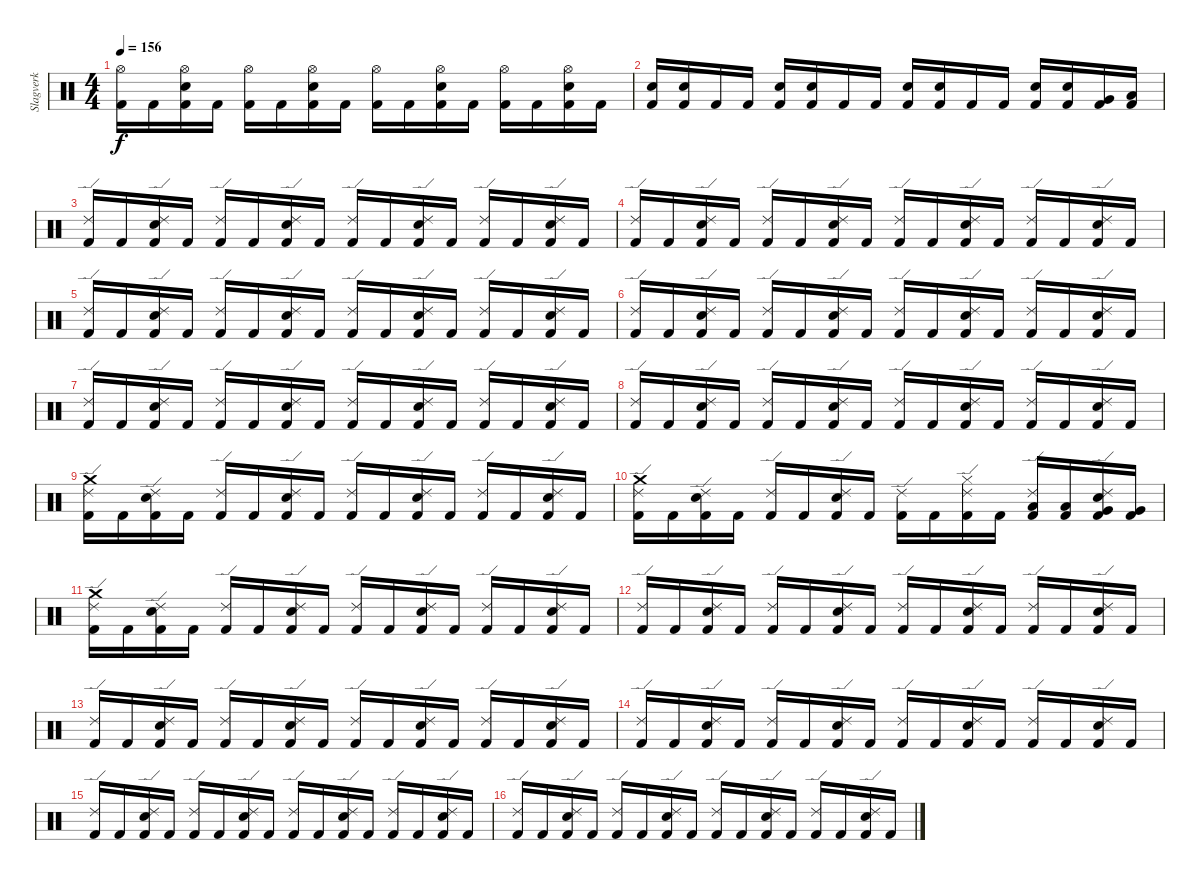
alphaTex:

\track ("Slagverk" "Slagverk") {instrument percussion}
\staff {score}
\articulation defaults
\ts (4 4)
\tempo 156
\clef neutral
\ks c
("Hi-Hat (open)" "Kick (hit) 2").16{dy f} "Kick (hit) 2".16 ("Snare (hit) 2" "Hi-Hat (open)" "Kick (hit) 2").16 "Kick (hit) 2".16 ("Hi-Hat (open)" "Kick (hit) 2").16 "Kick (hit) 2".16 ("Snare (hit) 2" "Hi-Hat (open)" "Kick (hit) 2").16 "Kick (hit) 2".16 ("Hi-Hat (open)" "Kick (hit) 2").16 "Kick (hit) 2".16 ("Snare (hit) 2" "Hi-Hat (open)" "Kick (hit) 2").16 "Kick (hit) 2".16 ("Hi-Hat (open)" "Kick (hit) 2").16 "Kick (hit) 2".16 ("Snare (hit) 2" "Hi-Hat (open)" "Kick (hit) 2").16 "Kick (hit) 2".16 |
("Electric Snare (hit)" "Kick (hit) 2").16 ("Electric Snare (hit)" "Kick (hit) 2").16 "Kick (hit) 2".16 "Kick (hit) 2".16 ("Electric Snare (hit)" "Kick (hit) 2").16 ("Electric Snare (hit)" "Kick (hit) 2").16 "Kick (hit) 2".16 "Kick (hit) 2".16 ("Electric Snare (hit)" "Kick (hit) 2").16 ("Electric Snare (hit)" "Kick (hit) 2").16 "Kick (hit) 2".16 "Kick (hit) 2".16 ("Electric Snare (hit)" "Kick (hit) 2").16 ("Electric Snare (hit)" "Kick (hit) 2").16 ("Very Low Tom (hit)" "Kick (hit) 2").16 ("Low Floor Tom (hit)" "Kick (hit) 2").16 |
("Ride (edge) 2" "Kick (hit) 2").16 "Kick (hit) 2".16 ("Snare (hit) 2" "Ride (edge) 2" "Kick (hit) 2").16 "Kick (hit) 2".16 ("Ride (edge) 2" "Kick (hit) 2").16 "Kick (hit) 2".16 ("Snare (hit) 2" "Ride (edge) 2" "Kick (hit) 2").16 "Kick (hit) 2".16 ("Ride (edge) 2" "Kick (hit) 2").16 "Kick (hit) 2".16 ("Snare (hit) 2" "Ride (edge) 2" "Kick (hit) 2").16 "Kick (hit) 2".16 ("Ride (edge) 2" "Kick (hit) 2").16 "Kick (hit) 2".16 ("Snare (hit) 2" "Ride (edge) 2" "Kick (hit) 2").16 "Kick (hit) 2".16 |
("Ride (edge) 2" "Kick (hit) 2").16 "Kick (hit) 2".16 ("Snare (hit) 2" "Ride (edge) 2" "Kick (hit) 2").16 "Kick (hit) 2".16 ("Ride (edge) 2" "Kick (hit) 2").16 "Kick (hit) 2".16 ("Snare (hit) 2" "Ride (edge) 2" "Kick (hit) 2").16 "Kick (hit) 2".16 ("Ride (edge) 2" "Kick (hit) 2").16 "Kick (hit) 2".16 ("Snare (hit) 2" "Ride (edge) 2" "Kick (hit) 2").16 "Kick (hit) 2".16 ("Ride (edge) 2" "Kick (hit) 2").16 "Kick (hit) 2".16 ("Snare (hit) 2" "Ride (edge) 2" "Kick (hit) 2").16 "Kick (hit) 2".16 |
("Ride (edge) 2" "Kick (hit) 2").16 "Kick (hit) 2".16 ("Snare (hit) 2" "Ride (edge) 2" "Kick (hit) 2").16 "Kick (hit) 2".16 ("Ride (edge) 2" "Kick (hit) 2").16 "Kick (hit) 2".16 ("Snare (hit) 2" "Ride (edge) 2" "Kick (hit) 2").16 "Kick (hit) 2".16 ("Ride (edge) 2" "Kick (hit) 2").16 "Kick (hit) 2".16 ("Snare (hit) 2" "Ride (edge) 2" "Kick (hit) 2").16 "Kick (hit) 2".16 ("Ride (edge) 2" "Kick (hit) 2").16 "Kick (hit) 2".16 ("Snare (hit) 2" "Ride (edge) 2" "Kick (hit) 2").16 "Kick (hit) 2".16 |
("Ride (edge) 2" "Kick (hit) 2").16 "Kick (hit) 2".16 ("Snare (hit) 2" "Ride (edge) 2" "Kick (hit) 2").16 "Kick (hit) 2".16 ("Ride (edge) 2" "Kick (hit) 2").16 "Kick (hit) 2".16 ("Snare (hit) 2" "Ride (edge) 2" "Kick (hit) 2").16 "Kick (hit) 2".16 ("Ride (edge) 2" "Kick (hit) 2").16 "Kick (hit) 2".16 ("Snare (hit) 2" "Ride (edge) 2" "Kick (hit) 2").16 "Kick (hit) 2".16 ("Ride (edge) 2" "Kick (hit) 2").16 "Kick (hit) 2".16 ("Snare (hit) 2" "Ride (edge) 2" "Kick (hit) 2").16 "Kick (hit) 2".16 |
("Ride (edge) 2" "Kick (hit) 2").16 "Kick (hit) 2".16 ("Snare (hit) 2" "Ride (edge) 2" "Kick (hit) 2").16 "Kick (hit) 2".16 ("Ride (edge) 2" "Kick (hit) 2").16 "Kick (hit) 2".16 ("Snare (hit) 2" "Ride (edge) 2" "Kick (hit) 2").16 "Kick (hit) 2".16 ("Ride (edge) 2" "Kick (hit) 2").16 "Kick (hit) 2".16 ("Snare (hit) 2" "Ride (edge) 2" "Kick (hit) 2").16 "Kick (hit) 2".16 ("Ride (edge) 2" "Kick (hit) 2").16 "Kick (hit) 2".16 ("Snare (hit) 2" "Ride (edge) 2" "Kick (hit) 2").16 "Kick (hit) 2".16 |
("Ride (edge) 2" "Kick (hit) 2").16 "Kick (hit) 2".16 ("Snare (hit) 2" "Ride (edge) 2" "Kick (hit) 2").16 "Kick (hit) 2".16 ("Ride (edge) 2" "Kick (hit) 2").16 "Kick (hit) 2".16 ("Snare (hit) 2" "Ride (edge) 2" "Kick (hit) 2").16 "Kick (hit) 2".16 ("Ride (edge) 2" "Kick (hit) 2").16 "Kick (hit) 2".16 ("Snare (hit) 2" "Ride (edge) 2" "Kick (hit) 2").16 "Kick (hit) 2".16 ("Ride (edge) 2" "Kick (hit) 2").16 "Kick (hit) 2".16 ("Snare (hit) 2" "Ride (edge) 2" "Kick (hit) 2").16 "Kick (hit) 2".16 |
("Crash medium (hit)" "Ride (edge) 2" "Kick (hit) 2").16 "Kick (hit) 2".16 ("Snare (hit) 2" "Ride (edge) 2" "Kick (hit) 2").16 "Kick (hit) 2".16 ("Ride (edge) 2" "Kick (hit) 2").16 "Kick (hit) 2".16 ("Snare (hit) 2" "Ride (edge) 2" "Kick (hit) 2").16 "Kick (hit) 2".16 ("Ride (edge) 2" "Kick (hit) 2").16 "Kick (hit) 2".16 ("Snare (hit) 2" "Ride (edge) 2" "Kick (hit) 2").16 "Kick (hit) 2".16 ("Ride (edge) 2" "Kick (hit) 2").16 "Kick (hit) 2".16 ("Snare (hit) 2" "Ride (edge) 2" "Kick (hit) 2").16 "Kick (hit) 2".16 |
("Crash medium (hit)" "Ride (edge) 2" "Kick (hit) 2").16 "Kick (hit) 2".16 ("Snare (hit) 2" "Ride (edge) 2" "Kick (hit) 2").16 "Kick (hit) 2".16 ("Ride (edge) 2" "Kick (hit) 2").16 "Kick (hit) 2".16 ("Snare (hit) 2" "Ride (edge) 2" "Kick (hit) 2").16 "Kick (hit) 2".16 ("Ride (edge) 2" "Kick (hit) 2").16 "Kick (hit) 2".16 ("Kick (hit) 2" "Hi-Hat (closed)" "Ride (edge) 2").16 "Kick (hit) 2".16 ("Low Tom (hit)" "Ride (edge) 2" "Kick (hit) 2").16 ("Low Tom (hit)" "Kick (hit) 2").16 ("Very Low Tom (hit)" "Snare (hit) 2" "Ride (edge) 2" "Kick (hit) 2").16 ("Very Low Tom (hit)" "Kick (hit) 2").16 |
("Crash medium (hit)" "Ride (edge) 2" "Kick (hit) 2").16 "Kick (hit) 2".16 ("Snare (hit) 2" "Ride (edge) 2" "Kick (hit) 2").16 "Kick (hit) 2".16 ("Ride (edge) 2" "Kick (hit) 2").16 "Kick (hit) 2".16 ("Snare (hit) 2" "Ride (edge) 2" "Kick (hit) 2").16 "Kick (hit) 2".16 ("Ride (edge) 2" "Kick (hit) 2").16 "Kick (hit) 2".16 ("Snare (hit) 2" "Ride (edge) 2" "Kick (hit) 2").16 "Kick (hit) 2".16 ("Ride (edge) 2" "Kick (hit) 2").16 "Kick (hit) 2".16 ("Snare (hit) 2" "Ride (edge) 2" "Kick (hit) 2").16 "Kick (hit) 2".16 |
("Ride (edge) 2" "Kick (hit) 2").16 "Kick (hit) 2".16 ("Snare (hit) 2" "Ride (edge) 2" "Kick (hit) 2").16 "Kick (hit) 2".16 ("Ride (edge) 2" "Kick (hit) 2").16 "Kick (hit) 2".16 ("Snare (hit) 2" "Ride (edge) 2" "Kick (hit) 2").16 "Kick (hit) 2".16 ("Ride (edge) 2" "Kick (hit) 2").16 "Kick (hit) 2".16 ("Snare (hit) 2" "Ride (edge) 2" "Kick (hit) 2").16 "Kick (hit) 2".16 ("Ride (edge) 2" "Kick (hit) 2").16 "Kick (hit) 2".16 ("Snare (hit) 2" "Ride (edge) 2" "Kick (hit) 2").16 "Kick (hit) 2".16 |
("Ride (edge) 2" "Kick (hit) 2").16 "Kick (hit) 2".16 ("Snare (hit) 2" "Ride (edge) 2" "Kick (hit) 2").16 "Kick (hit) 2".16 ("Ride (edge) 2" "Kick (hit) 2").16 "Kick (hit) 2".16 ("Snare (hit) 2" "Ride (edge) 2" "Kick (hit) 2").16 "Kick (hit) 2".16 ("Ride (edge) 2" "Kick (hit) 2").16 "Kick (hit) 2".16 ("Snare (hit) 2" "Ride (edge) 2" "Kick (hit) 2").16 "Kick (hit) 2".16 ("Ride (edge) 2" "Kick (hit) 2").16 "Kick (hit) 2".16 ("Snare (hit) 2" "Ride (edge) 2" "Kick (hit) 2").16 "Kick (hit) 2".16 |
("Ride (edge) 2" "Kick (hit) 2").16 "Kick (hit) 2".16 ("Snare (hit) 2" "Ride (edge) 2" "Kick (hit) 2").16 "Kick (hit) 2".16 ("Ride (edge) 2" "Kick (hit) 2").16 "Kick (hit) 2".16 ("Snare (hit) 2" "Ride (edge) 2" "Kick (hit) 2").16 "Kick (hit) 2".16 ("Ride (edge) 2" "Kick (hit) 2").16 "Kick (hit) 2".16 ("Snare (hit) 2" "Ride (edge) 2" "Kick (hit) 2").16 "Kick (hit) 2".16 ("Ride (edge) 2" "Kick (hit) 2").16 "Kick (hit) 2".16 ("Snare (hit) 2" "Ride (edge) 2" "Kick (hit) 2").16 "Kick (hit) 2".16 |
("Ride (edge) 2" "Kick (hit) 2").16 "Kick (hit) 2".16 ("Snare (hit) 2" "Ride (edge) 2" "Kick (hit) 2").16 "Kick (hit) 2".16 ("Ride (edge) 2" "Kick (hit) 2").16 "Kick (hit) 2".16 ("Snare (hit) 2" "Ride (edge) 2" "Kick (hit) 2").16 "Kick (hit) 2".16 ("Ride (edge) 2" "Kick (hit) 2").16 "Kick (hit) 2".16 ("Snare (hit) 2" "Ride (edge) 2" "Kick (hit) 2").16 "Kick (hit) 2".16 ("Ride (edge) 2" "Kick (hit) 2").16 "Kick (hit) 2".16 ("Snare (hit) 2" "Ride (edge) 2" "Kick (hit) 2").16 "Kick (hit) 2".16 |
("Ride (edge) 2" "Kick (hit) 2").16 "Kick (hit) 2".16 ("Snare (hit) 2" "Ride (edge) 2" "Kick (hit) 2").16 "Kick (hit) 2".16 ("Ride (edge) 2" "Kick (hit) 2").16 "Kick (hit) 2".16 ("Snare (hit) 2" "Ride (edge) 2" "Kick (hit) 2").16 "Kick (hit) 2".16 ("Ride (edge) 2" "Kick (hit) 2").16 "Kick (hit) 2".16 ("Snare (hit) 2" "Ride (edge) 2" "Kick (hit) 2").16 "Kick (hit) 2".16 ("Ride (edge) 2" "Kick (hit) 2").16 "Kick (hit) 2".16 ("Snare (hit) 2" "Ride (edge) 2" "Kick (hit) 2").16 "Kick (hit) 2".16
